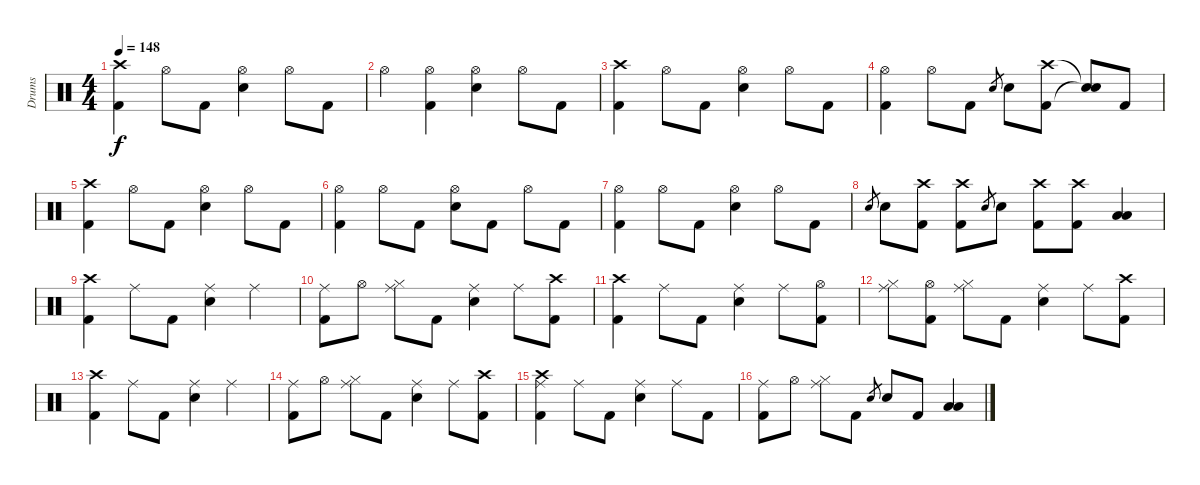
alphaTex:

\track ("Drums" "Drums") {instrument percussion}
\staff {score}
\articulation defaults
\ts (4 4)
\tempo 148
\clef neutral
\ks c
("Crash high (hit)" "Kick (hit) 2").4{dy f} "Hi-Hat (open)".8 "Kick (hit) 2".8 ("Hi-Hat (open)" "Electric Snare (hit)").4 "Hi-Hat (open)".8 "Kick (hit) 2".8 |
"Hi-Hat (open)".4 ("Hi-Hat (open)" "Kick (hit) 2").4 ("Hi-Hat (open)" "Electric Snare (hit)").4 "Hi-Hat (open)".8 "Kick (hit) 2".8 |
("Crash high (hit)" "Kick (hit) 2").4 "Hi-Hat (open)".8 "Kick (hit) 2".8 ("Hi-Hat (open)" "Electric Snare (hit)").4 "Hi-Hat (open)".8 "Kick (hit) 2".8 |
("Hi-Hat (open)" "Kick (hit) 2").4 "Hi-Hat (open)".8 "Kick (hit) 2".8 "Electric Snare (hit)".8{gr} "Electric Snare (hit)".8 ("Crash high (hit)" "Kick (hit) 2").8 ("Snare (hit)"{t} "Snare (hit)"{t}).8 "Kick (hit) 2".8 |
("Crash high (hit)" "Kick (hit) 2").4 "Hi-Hat (open)".8 "Kick (hit) 2".8 ("Hi-Hat (open)" "Electric Snare (hit)").4 "Hi-Hat (open)".8 "Kick (hit) 2".8 |
("Hi-Hat (open)" "Kick (hit) 2").4 "Hi-Hat (open)".8 "Kick (hit) 2".8 ("Hi-Hat (open)" "Electric Snare (hit)").8 "Kick (hit) 2".8 "Hi-Hat (open)".8 "Kick (hit) 2".8 |
("Hi-Hat (open)" "Kick (hit) 2").4 "Hi-Hat (open)".8 "Kick (hit) 2".8 ("Hi-Hat (open)" "Electric Snare (hit)").4 "Hi-Hat (open)".8 "Kick (hit) 2".8 |
"Electric Snare (hit)".8{gr} "Electric Snare (hit)".8 ("Crash high (hit)" "Kick (hit) 2").8 ("Crash high (hit)" "Kick (hit) 2").8 "Electric Snare (hit)".8{gr} "Electric Snare (hit)".8 ("Crash high (hit)" "Kick (hit) 2").8 ("Crash high (hit)" "Kick (hit) 2").8 ("Low Tom (hit)" "Low Floor Tom (hit)").4 |
("Crash high (hit)" "Kick (hit) 2").4 "Ride (middle)".8 "Kick (hit) 2".8 ("Ride (middle)" "Electric Snare (hit)").4 "Ride (middle)".4 |
("Ride (middle)" "Kick (hit) 2").8 "Hi-Hat (open)".8 ("Ride (middle)" "Hi-Hat (closed)").8 "Kick (hit) 2".8 ("Ride (middle)" "Electric Snare (hit)").4 "Ride (middle)".8 ("Crash high (hit)" "Kick (hit) 2").8 |
("Crash high (hit)" "Kick (hit) 2").4 "Ride (middle)".8 "Kick (hit) 2".8 ("Ride (middle)" "Electric Snare (hit)").4 "Ride (middle)".8 ("Hi-Hat (open)" "Kick (hit) 2").8 |
("Ride (middle)" "Hi-Hat (closed)").8 ("Hi-Hat (open)" "Kick (hit) 2").8 ("Ride (middle)" "Hi-Hat (closed)").8 "Kick (hit) 2".8 ("Ride (middle)" "Electric Snare (hit)").4 "Ride (middle)".8 ("Crash high (hit)" "Kick (hit) 2").8 |
("Crash high (hit)" "Kick (hit) 2").4 "Ride (middle)".8 "Kick (hit) 2".8 ("Ride (middle)" "Electric Snare (hit)").4 "Ride (middle)".4 |
("Ride (middle)" "Kick (hit) 2").8 "Hi-Hat (open)".8 ("Ride (middle)" "Hi-Hat (closed)").8 "Kick (hit) 2".8 ("Ride (middle)" "Electric Snare (hit)").4 "Ride (middle)".8 ("Crash high (hit)" "Kick (hit) 2").8 |
("Crash high (hit)" "Ride (middle)" "Kick (hit) 2").4 "Ride (middle)".8 "Kick (hit) 2".8 ("Ride (middle)" "Electric Snare (hit)").4 "Ride (middle)".8 "Kick (hit) 2".8 |
("Ride (middle)" "Kick (hit) 2").8 "Hi-Hat (open)".8 ("Ride (middle)" "Hi-Hat (closed)").8 "Kick (hit) 2".8 "Electric Snare (hit)".8{gr} "Electric Snare (hit)".8 "Kick (hit) 2".8 ("Low Floor Tom (hit)" "Low Tom (hit)").4
